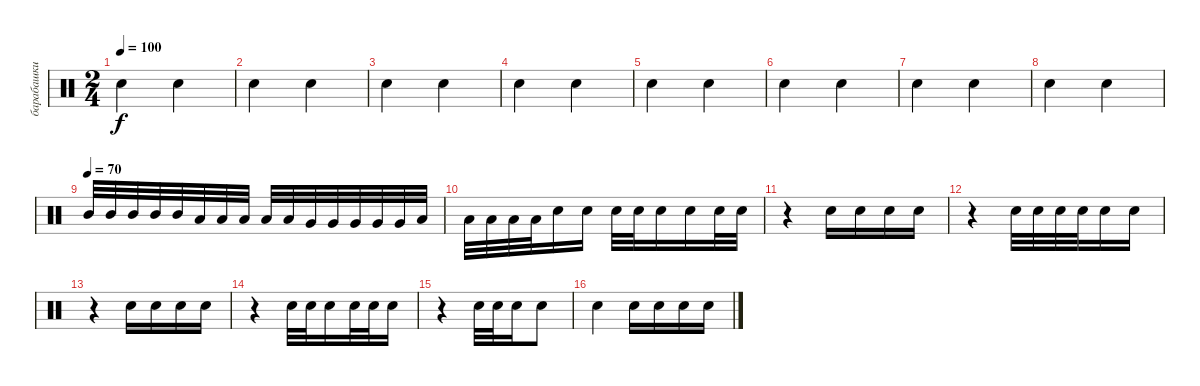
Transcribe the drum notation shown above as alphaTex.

\track ("барабашки middle" "барабашки ") {instrument percussion}
\staff {score}
\articulation defaults
\ts (2 4)
\tempo 100
\clef neutral
\ks c "Electric Snare (hit)".4{dy f} "Snare (hit) 2".4
|
"Electric Snare (hit)".4 "Snare (hit) 2".4 |
"Electric Snare (hit)".4 "Snare (hit) 2".4 |
"Electric Snare (hit)".4 "Snare (hit) 2".4 |
"Electric Snare (hit)".4 "Snare (hit) 2".4 |
"Electric Snare (hit)".4 "Snare (hit) 2".4 |
"Electric Snare (hit)".4 "Snare (hit) 2".4 |
"Electric Snare (hit)".4 "Snare (hit) 2".4 |
\tempo (70)
"Mid Tom (hit)".32 "Mid Tom (hit)".32 "Mid Tom (hit)".32 "Mid Tom (hit)".32 "Mid Tom (hit)".32 "Low Tom (hit)".32 "Low Tom (hit)".32 "Low Tom (hit)".32 "Low Tom (hit)".32 "Low Tom (hit)".32 "Very Low Tom (hit)".32 "Very Low Tom (hit)".32 "Very Low Tom (hit)".32 "Very Low Tom (hit)".32 "Very Low Tom (hit)".32 "Low Floor Tom (hit)".32 |
"Low Floor Tom (hit)".32 "Low Floor Tom (hit)".32 "Low Floor Tom (hit)".32 "Low Floor Tom (hit)".32 "Electric Snare (hit)".16 "Electric Snare (hit)".16 "Electric Snare (hit)".32 "Electric Snare (hit)".32 "Electric Snare (hit)".16 "Electric Snare (hit)".16 "Electric Snare (hit)".32 "Electric Snare (hit)".32 |
r.4 "Electric Snare (hit)".16 "Electric Snare (hit)".16 "Electric Snare (hit)".16 "Electric Snare (hit)".16 |
r.4 "Electric Snare (hit)".32 "Electric Snare (hit)".32 "Electric Snare (hit)".32 "Electric Snare (hit)".32 "Electric Snare (hit)".16 "Electric Snare (hit)".16 |
r.4 "Electric Snare (hit)".16 "Electric Snare (hit)".16 "Electric Snare (hit)".16 "Electric Snare (hit)".16 |
r.4 "Electric Snare (hit)".32 "Electric Snare (hit)".32 "Electric Snare (hit)".16 "Electric Snare (hit)".32 "Electric Snare (hit)".32 "Electric Snare (hit)".16 |
r.4 "Electric Snare (hit)".32 "Electric Snare (hit)".32 "Electric Snare (hit)".16 "Electric Snare (hit)".8 |
"Electric Snare (hit)".4 "Electric Snare (hit)".16 "Electric Snare (hit)".16 "Electric Snare (hit)".16 "Electric Snare (hit)".16
